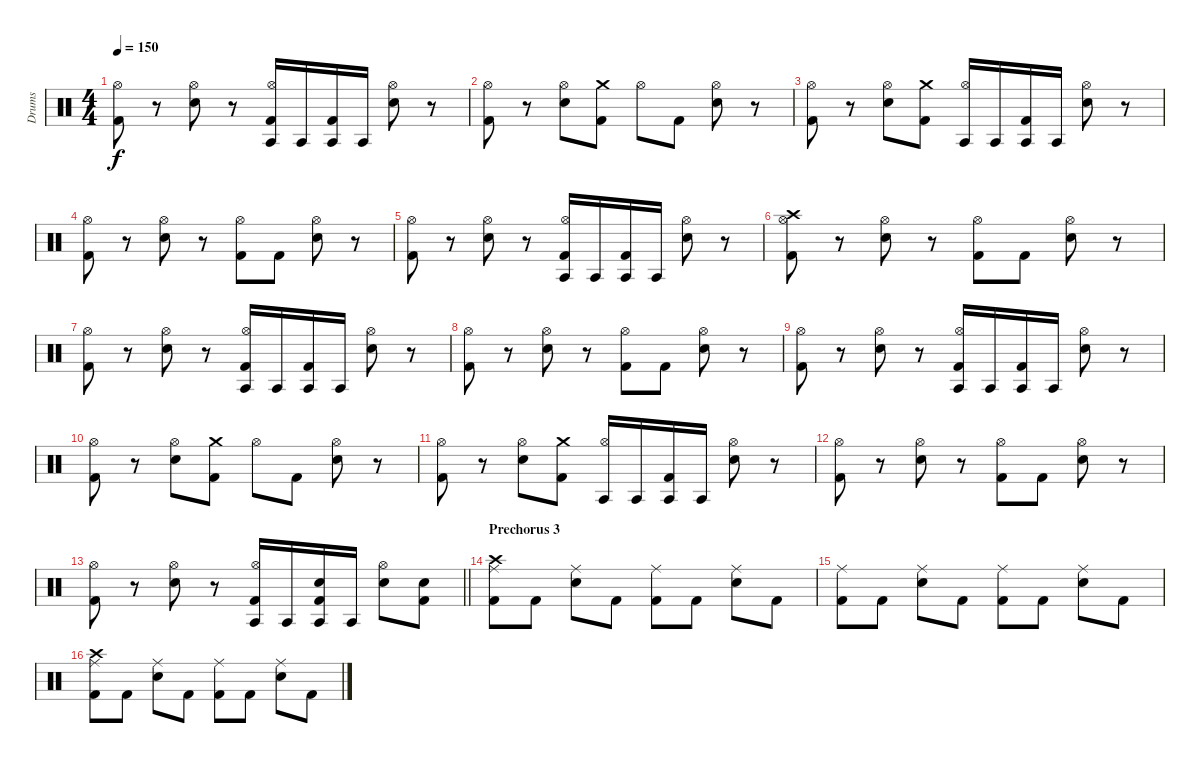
\track ("Drums" "Drums") {instrument percussion}
\staff {score}
\articulation defaults
\ts (4 4)
\tempo 150
\clef neutral
\ks c
("Hi-Hat (open)" "Kick (hit) 2").8{dy f} r.8 ("Hi-Hat (open)" "Snare (hit) 2").8 r.8 ("Agogo tow (hit)" "Hi-Hat (open)" "Kick (hit) 2").16 "Agogo tow (hit)".16 ("Agogo tow (hit)" "Kick (hit) 2").16 "Agogo tow (hit)".16 ("Hi-Hat (open)" "Snare (hit) 2").8 r.8 |
("Hi-Hat (open)" "Kick (hit) 2").8 r.8 ("Hi-Hat (open)" "Snare (hit) 2").8 ("Crash medium (hit)" "Kick (hit) 2").8 "Hi-Hat (open)".8 "Kick (hit) 2".8 ("Hi-Hat (open)" "Snare (hit) 2").8 r.8 |
("Hi-Hat (open)" "Kick (hit) 2").8 r.8 ("Hi-Hat (open)" "Snare (hit) 2").8 ("Crash medium (hit)" "Kick (hit) 2").8 ("Agogo tow (hit)" "Hi-Hat (open)").16 "Agogo tow (hit)".16 ("Agogo tow (hit)" "Kick (hit) 2").16 "Agogo tow (hit)".16 ("Hi-Hat (open)" "Snare (hit) 2").8 r.8 |
("Hi-Hat (open)" "Kick (hit) 2").8 r.8 ("Hi-Hat (open)" "Snare (hit) 2").8 r.8 ("Hi-Hat (open)" "Kick (hit) 2").8 "Kick (hit) 2".8 ("Hi-Hat (open)" "Snare (hit) 2").8 r.8 |
("Hi-Hat (open)" "Kick (hit) 2").8 r.8 ("Hi-Hat (open)" "Snare (hit) 2").8 r.8 ("Agogo tow (hit)" "Hi-Hat (open)" "Kick (hit) 2").16 "Agogo tow (hit)".16 ("Agogo tow (hit)" "Kick (hit) 2").16 "Agogo tow (hit)".16 ("Hi-Hat (open)" "Snare (hit) 2").8 r.8 |
("Crash high (hit)" "Hi-Hat (open)" "Kick (hit) 2").8 r.8 ("Hi-Hat (open)" "Snare (hit) 2").8 r.8 ("Hi-Hat (open)" "Kick (hit) 2").8 "Kick (hit) 2".8 ("Hi-Hat (open)" "Snare (hit) 2").8 r.8 |
("Hi-Hat (open)" "Kick (hit) 2").8 r.8 ("Hi-Hat (open)" "Snare (hit) 2").8 r.8 ("Agogo tow (hit)" "Hi-Hat (open)" "Kick (hit) 2").16 "Agogo tow (hit)".16 ("Agogo tow (hit)" "Kick (hit) 2").16 "Agogo tow (hit)".16 ("Hi-Hat (open)" "Snare (hit) 2").8 r.8 |
("Hi-Hat (open)" "Kick (hit) 2").8 r.8 ("Hi-Hat (open)" "Snare (hit) 2").8 r.8 ("Hi-Hat (open)" "Kick (hit) 2").8 "Kick (hit) 2".8 ("Hi-Hat (open)" "Snare (hit) 2").8 r.8 |
("Hi-Hat (open)" "Kick (hit) 2").8 r.8 ("Hi-Hat (open)" "Snare (hit) 2").8 r.8 ("Agogo tow (hit)" "Hi-Hat (open)" "Kick (hit) 2").16 "Agogo tow (hit)".16 ("Agogo tow (hit)" "Kick (hit) 2").16 "Agogo tow (hit)".16 ("Hi-Hat (open)" "Snare (hit) 2").8 r.8 |
("Hi-Hat (open)" "Kick (hit) 2").8 r.8 ("Hi-Hat (open)" "Snare (hit) 2").8 ("Crash medium (hit)" "Kick (hit) 2").8 "Hi-Hat (open)".8 "Kick (hit) 2".8 ("Hi-Hat (open)" "Snare (hit) 2").8 r.8 |
("Hi-Hat (open)" "Kick (hit) 2").8 r.8 ("Hi-Hat (open)" "Snare (hit) 2").8 ("Crash medium (hit)" "Kick (hit) 2").8 ("Agogo tow (hit)" "Hi-Hat (open)").16 "Agogo tow (hit)".16 ("Agogo tow (hit)" "Kick (hit) 2").16 "Agogo tow (hit)".16 ("Hi-Hat (open)" "Snare (hit) 2").8 r.8 |
("Hi-Hat (open)" "Kick (hit) 2").8 r.8 ("Hi-Hat (open)" "Snare (hit) 2").8 r.8 ("Hi-Hat (open)" "Kick (hit) 2").8 "Kick (hit) 2".8 ("Hi-Hat (open)" "Snare (hit) 2").8 r.8 |
\barLineRight lightlight
("Hi-Hat (open)" "Kick (hit) 2").8 r.8 ("Hi-Hat (open)" "Snare (hit) 2").8 r.8 ("Agogo tow (hit)" "Hi-Hat (open)" "Kick (hit) 2").16 "Agogo tow (hit)".16 ("Agogo tow (hit)" "Snare (hit) 2" "Kick (hit) 2").16 "Agogo tow (hit)".16 ("Hi-Hat (open)" "Snare (hit) 2").8 ("Snare (hit) 2" "Kick (hit) 2").8 |
\section ("" "Prechorus 3")
("Crash high (hit)" "Ride (middle)" "Kick (hit) 2").8 "Kick (hit) 2".8 ("Ride (middle)" "Snare (hit) 2").8 "Kick (hit) 2".8 ("Ride (middle)" "Kick (hit) 2").8 "Kick (hit) 2".8 ("Ride (middle)" "Snare (hit) 2").8 "Kick (hit) 2".8 |
("Ride (middle)" "Kick (hit) 2").8 "Kick (hit) 2".8 ("Ride (middle)" "Snare (hit) 2").8 "Kick (hit) 2".8 ("Ride (middle)" "Kick (hit) 2").8 "Kick (hit) 2".8 ("Ride (middle)" "Snare (hit) 2").8 "Kick (hit) 2".8 |
("Crash high (hit)" "Ride (middle)" "Kick (hit) 2").8 "Kick (hit) 2".8 ("Ride (middle)" "Snare (hit) 2").8 "Kick (hit) 2".8 ("Ride (middle)" "Kick (hit) 2").8 "Kick (hit) 2".8 ("Ride (middle)" "Snare (hit) 2").8 "Kick (hit) 2".8
